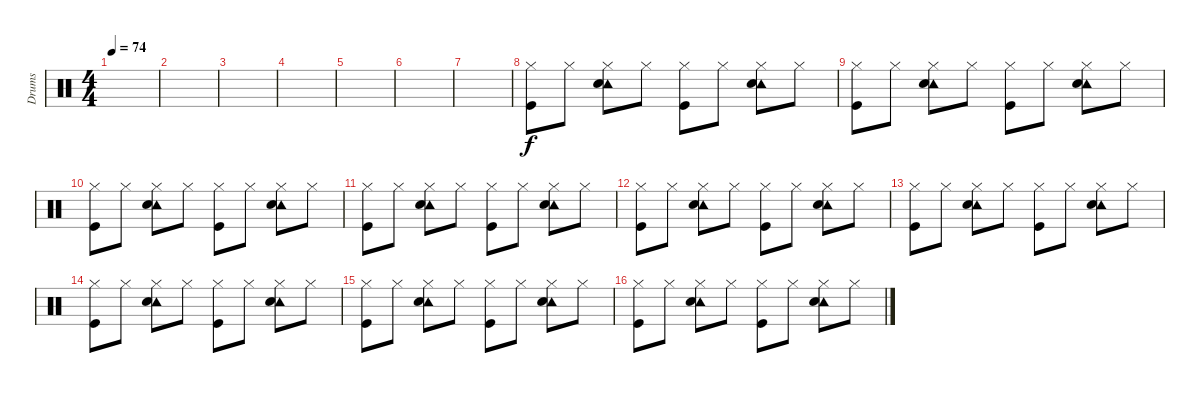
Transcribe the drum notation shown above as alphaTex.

\track ("Drums" "Drums") {instrument percussion}
\staff {score}
\articulation defaults
\ts (4 4)
\tempo 74
\clef neutral
\ks c
|
|
|
|
|
|
|
("Hi-Hat (closed)" "Kick (hit)").8 "Hi-Hat (closed)".8 ("Tambourine (hit)" "Hi-Hat (closed)" "Snare (hit) 2").8 "Hi-Hat (closed)".8 ("Hi-Hat (closed)" "Kick (hit)").8 "Hi-Hat (closed)".8 ("Tambourine (hit)" "Hi-Hat (closed)" "Snare (hit) 2").8 "Hi-Hat (closed)".8 |
("Hi-Hat (closed)" "Kick (hit)").8 "Hi-Hat (closed)".8 ("Tambourine (hit)" "Hi-Hat (closed)" "Snare (hit) 2").8 "Hi-Hat (closed)".8 ("Hi-Hat (closed)" "Kick (hit)").8 "Hi-Hat (closed)".8 ("Tambourine (hit)" "Hi-Hat (closed)" "Snare (hit) 2").8 "Hi-Hat (closed)".8 |
("Hi-Hat (closed)" "Kick (hit)").8 "Hi-Hat (closed)".8 ("Tambourine (hit)" "Hi-Hat (closed)" "Snare (hit) 2").8 "Hi-Hat (closed)".8 ("Hi-Hat (closed)" "Kick (hit)").8 "Hi-Hat (closed)".8 ("Tambourine (hit)" "Hi-Hat (closed)" "Snare (hit) 2").8 "Hi-Hat (closed)".8 |
("Hi-Hat (closed)" "Kick (hit)").8 "Hi-Hat (closed)".8 ("Tambourine (hit)" "Hi-Hat (closed)" "Snare (hit) 2").8 "Hi-Hat (closed)".8 ("Hi-Hat (closed)" "Kick (hit)").8 "Hi-Hat (closed)".8 ("Tambourine (hit)" "Hi-Hat (closed)" "Snare (hit) 2").8 "Hi-Hat (closed)".8 |
("Hi-Hat (closed)" "Kick (hit)").8 "Hi-Hat (closed)".8 ("Tambourine (hit)" "Hi-Hat (closed)" "Snare (hit) 2").8 "Hi-Hat (closed)".8 ("Hi-Hat (closed)" "Kick (hit)").8 "Hi-Hat (closed)".8 ("Tambourine (hit)" "Hi-Hat (closed)" "Snare (hit) 2").8 "Hi-Hat (closed)".8 |
("Hi-Hat (closed)" "Kick (hit)").8 "Hi-Hat (closed)".8 ("Tambourine (hit)" "Hi-Hat (closed)" "Snare (hit) 2").8 "Hi-Hat (closed)".8 ("Hi-Hat (closed)" "Kick (hit)").8 "Hi-Hat (closed)".8 ("Tambourine (hit)" "Hi-Hat (closed)" "Snare (hit) 2").8 "Hi-Hat (closed)".8 |
("Hi-Hat (closed)" "Kick (hit)").8 "Hi-Hat (closed)".8 ("Tambourine (hit)" "Hi-Hat (closed)" "Snare (hit) 2").8 "Hi-Hat (closed)".8 ("Hi-Hat (closed)" "Kick (hit)").8 "Hi-Hat (closed)".8 ("Tambourine (hit)" "Hi-Hat (closed)" "Snare (hit) 2").8 "Hi-Hat (closed)".8 |
("Hi-Hat (closed)" "Kick (hit)").8 "Hi-Hat (closed)".8 ("Tambourine (hit)" "Hi-Hat (closed)" "Snare (hit) 2").8 "Hi-Hat (closed)".8 ("Hi-Hat (closed)" "Kick (hit)").8 "Hi-Hat (closed)".8 ("Tambourine (hit)" "Hi-Hat (closed)" "Snare (hit) 2").8 "Hi-Hat (closed)".8 |
("Hi-Hat (closed)" "Kick (hit)").8 "Hi-Hat (closed)".8 ("Tambourine (hit)" "Hi-Hat (closed)" "Snare (hit) 2").8 "Hi-Hat (closed)".8 ("Hi-Hat (closed)" "Kick (hit)").8 "Hi-Hat (closed)".8 ("Tambourine (hit)" "Hi-Hat (closed)" "Snare (hit) 2").8 "Hi-Hat (closed)".8
